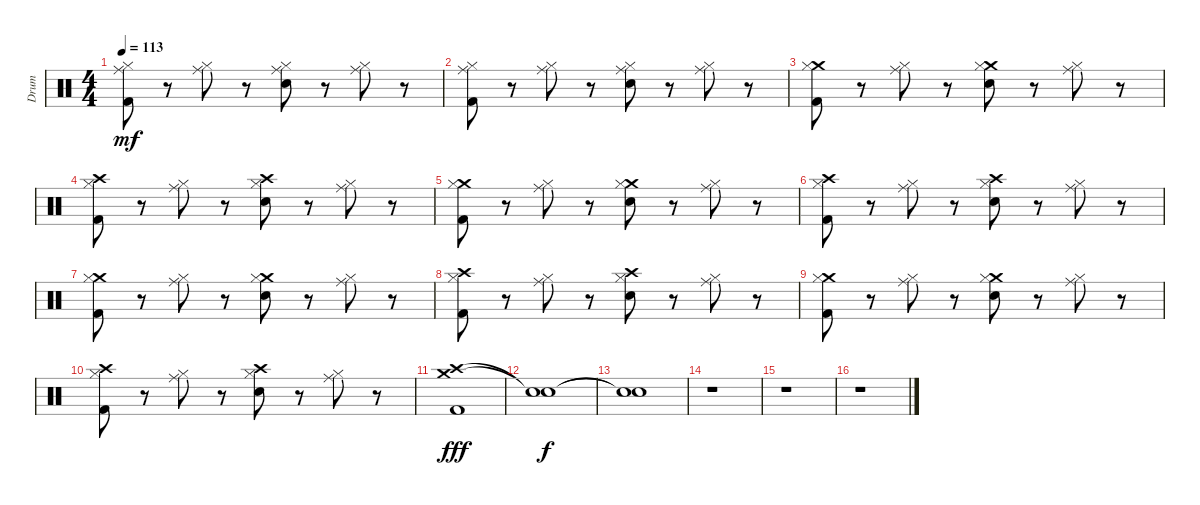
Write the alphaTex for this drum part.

\track ("Drum" "Drum") {instrument percussion}
\staff {score}
\articulation defaults
\ts (4 4)
\tempo 113
\clef neutral
\ks c
("Ride (middle)" "Hi-Hat (closed)" "Kick (hit) 2").8{dy mf} r.8 ("Ride (middle)" "Hi-Hat (closed)").8 r.8 ("Ride (middle)" "Hi-Hat (closed)" "Snare (hit) 2").8 r.8 ("Ride (middle)" "Hi-Hat (closed)").8 r.8 |
("Ride (middle)" "Hi-Hat (closed)" "Kick (hit) 2").8 r.8 ("Ride (middle)" "Hi-Hat (closed)").8 r.8 ("Ride (middle)" "Hi-Hat (closed)" "Snare (hit) 2").8 r.8 ("Ride (middle)" "Hi-Hat (closed)").8 r.8 |
("Crash medium (hit)" "Hi-Hat (closed)" "Kick (hit) 2").8 r.8 ("Ride (middle)" "Hi-Hat (closed)").8 r.8 ("Crash medium (hit)" "Hi-Hat (closed)" "Snare (hit) 2").8 r.8 ("Ride (middle)" "Hi-Hat (closed)").8 r.8 |
("Crash high (hit)" "Hi-Hat (closed)" "Kick (hit) 2").8 r.8 ("Ride (middle)" "Hi-Hat (closed)").8 r.8 ("Crash high (hit)" "Hi-Hat (closed)" "Snare (hit) 2").8 r.8 ("Ride (middle)" "Hi-Hat (closed)").8 r.8 |
("Crash medium (hit)" "Hi-Hat (closed)" "Kick (hit) 2").8 r.8 ("Ride (middle)" "Hi-Hat (closed)").8 r.8 ("Crash medium (hit)" "Hi-Hat (closed)" "Snare (hit) 2").8 r.8 ("Ride (middle)" "Hi-Hat (closed)").8 r.8 |
("Crash high (hit)" "Hi-Hat (closed)" "Kick (hit) 2").8 r.8 ("Ride (middle)" "Hi-Hat (closed)").8 r.8 ("Crash high (hit)" "Hi-Hat (closed)" "Snare (hit) 2").8 r.8 ("Ride (middle)" "Hi-Hat (closed)").8 r.8 |
("Crash medium (hit)" "Hi-Hat (closed)" "Kick (hit) 2").8 r.8 ("Ride (middle)" "Hi-Hat (closed)").8 r.8 ("Crash medium (hit)" "Hi-Hat (closed)" "Snare (hit) 2").8 r.8 ("Ride (middle)" "Hi-Hat (closed)").8 r.8 |
("Crash high (hit)" "Hi-Hat (closed)" "Kick (hit) 2").8 r.8 ("Ride (middle)" "Hi-Hat (closed)").8 r.8 ("Crash high (hit)" "Hi-Hat (closed)" "Snare (hit) 2").8 r.8 ("Ride (middle)" "Hi-Hat (closed)").8 r.8 |
("Crash medium (hit)" "Hi-Hat (closed)" "Kick (hit) 2").8 r.8 ("Ride (middle)" "Hi-Hat (closed)").8 r.8 ("Crash medium (hit)" "Hi-Hat (closed)" "Snare (hit) 2").8 r.8 ("Ride (middle)" "Hi-Hat (closed)").8 r.8 |
("Crash high (hit)" "Hi-Hat (closed)" "Kick (hit) 2").8 r.8 ("Ride (middle)" "Hi-Hat (closed)").8 r.8 ("Crash high (hit)" "Hi-Hat (closed)" "Snare (hit) 2").8 r.8 ("Ride (middle)" "Hi-Hat (closed)").8 r.8 |
("Crash high (hit)" "Crash medium (hit)" "Kick (hit) 2").1{dy fff} |
("Snare (hit)"{t} "Snare (hit)"{t}).1{dy f} |
("Snare (hit)"{t} "Snare (hit)"{t}).1 |
r.1 |
r.1 |
r.1
